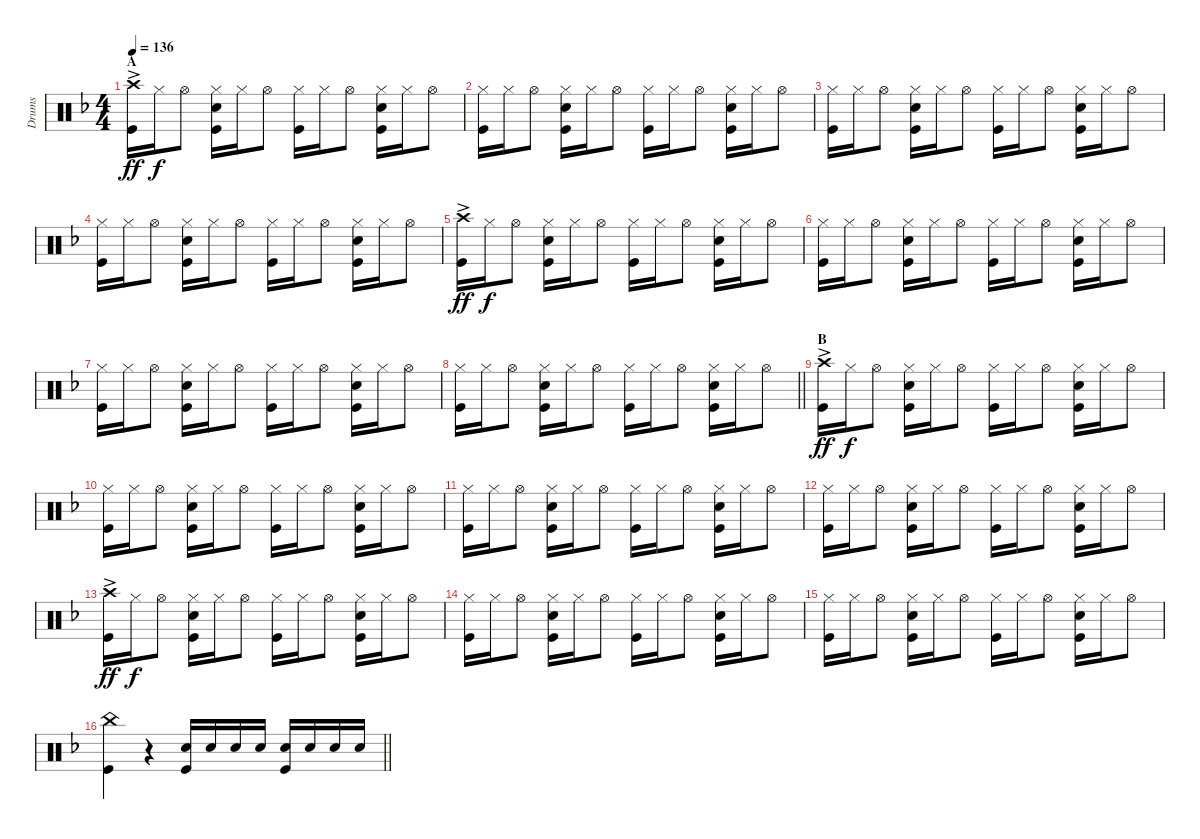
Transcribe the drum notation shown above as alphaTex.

\track ("Drums" "Drums") {instrument percussion}
\staff {score}
\articulation defaults
\ts (4 4)
\section ("" "A")
\tempo 136
\clef neutral
\ks dminor
("Kick (hit)" "Crash high (hit)"{ac}).16{dy ff} "Hi-Hat (closed)".16{dy f} "Hi-Hat (open)".8 ("Kick (hit)" "Hi-Hat (closed)" "Snare (hit) 2").16 "Hi-Hat (closed)".16 "Hi-Hat (open)".8 ("Kick (hit)" "Hi-Hat (closed)").16 "Hi-Hat (closed)".16 "Hi-Hat (open)".8 ("Kick (hit)" "Hi-Hat (closed)" "Snare (hit) 2").16 "Hi-Hat (closed)".16 "Hi-Hat (open)".8 |
("Kick (hit)" "Hi-Hat (closed)").16 "Hi-Hat (closed)".16 "Hi-Hat (open)".8 ("Kick (hit)" "Hi-Hat (closed)" "Snare (hit) 2").16 "Hi-Hat (closed)".16 "Hi-Hat (open)".8 ("Kick (hit)" "Hi-Hat (closed)").16 "Hi-Hat (closed)".16 "Hi-Hat (open)".8 ("Kick (hit)" "Hi-Hat (closed)" "Snare (hit) 2").16 "Hi-Hat (closed)".16 "Hi-Hat (open)".8 |
("Kick (hit)" "Hi-Hat (closed)").16 "Hi-Hat (closed)".16 "Hi-Hat (open)".8 ("Kick (hit)" "Hi-Hat (closed)" "Snare (hit) 2").16 "Hi-Hat (closed)".16 "Hi-Hat (open)".8 ("Kick (hit)" "Hi-Hat (closed)").16 "Hi-Hat (closed)".16 "Hi-Hat (open)".8 ("Kick (hit)" "Hi-Hat (closed)" "Snare (hit) 2").16 "Hi-Hat (closed)".16 "Hi-Hat (open)".8 |
("Kick (hit)" "Hi-Hat (closed)").16 "Hi-Hat (closed)".16 "Hi-Hat (open)".8 ("Kick (hit)" "Hi-Hat (closed)" "Snare (hit) 2").16 "Hi-Hat (closed)".16 "Hi-Hat (open)".8 ("Kick (hit)" "Hi-Hat (closed)").16 "Hi-Hat (closed)".16 "Hi-Hat (open)".8 ("Kick (hit)" "Hi-Hat (closed)" "Snare (hit) 2").16 "Hi-Hat (closed)".16 "Hi-Hat (open)".8 |
("Kick (hit)" "Crash high (hit)"{ac}).16{dy ff} "Hi-Hat (closed)".16{dy f} "Hi-Hat (open)".8 ("Kick (hit)" "Hi-Hat (closed)" "Snare (hit) 2").16 "Hi-Hat (closed)".16 "Hi-Hat (open)".8 ("Kick (hit)" "Hi-Hat (closed)").16 "Hi-Hat (closed)".16 "Hi-Hat (open)".8 ("Kick (hit)" "Hi-Hat (closed)" "Snare (hit) 2").16 "Hi-Hat (closed)".16 "Hi-Hat (open)".8 |
("Kick (hit)" "Hi-Hat (closed)").16 "Hi-Hat (closed)".16 "Hi-Hat (open)".8 ("Kick (hit)" "Hi-Hat (closed)" "Snare (hit) 2").16 "Hi-Hat (closed)".16 "Hi-Hat (open)".8 ("Kick (hit)" "Hi-Hat (closed)").16 "Hi-Hat (closed)".16 "Hi-Hat (open)".8 ("Kick (hit)" "Hi-Hat (closed)" "Snare (hit) 2").16 "Hi-Hat (closed)".16 "Hi-Hat (open)".8 |
("Kick (hit)" "Hi-Hat (closed)").16 "Hi-Hat (closed)".16 "Hi-Hat (open)".8 ("Kick (hit)" "Hi-Hat (closed)" "Snare (hit) 2").16 "Hi-Hat (closed)".16 "Hi-Hat (open)".8 ("Kick (hit)" "Hi-Hat (closed)").16 "Hi-Hat (closed)".16 "Hi-Hat (open)".8 ("Kick (hit)" "Hi-Hat (closed)" "Snare (hit) 2").16 "Hi-Hat (closed)".16 "Hi-Hat (open)".8 |
\barLineRight lightlight
("Kick (hit)" "Hi-Hat (closed)").16 "Hi-Hat (closed)".16 "Hi-Hat (open)".8 ("Kick (hit)" "Hi-Hat (closed)" "Snare (hit) 2").16 "Hi-Hat (closed)".16 "Hi-Hat (open)".8 ("Kick (hit)" "Hi-Hat (closed)").16 "Hi-Hat (closed)".16 "Hi-Hat (open)".8 ("Kick (hit)" "Hi-Hat (closed)" "Snare (hit) 2").16 "Hi-Hat (closed)".16 "Hi-Hat (open)".8 |
\section ("" "B")
("Kick (hit)" "Crash high (hit)"{ac}).16{dy ff} "Hi-Hat (closed)".16{dy f} "Hi-Hat (open)".8 ("Kick (hit)" "Hi-Hat (closed)" "Snare (hit) 2").16 "Hi-Hat (closed)".16 "Hi-Hat (open)".8 ("Kick (hit)" "Hi-Hat (closed)").16 "Hi-Hat (closed)".16 "Hi-Hat (open)".8 ("Kick (hit)" "Hi-Hat (closed)" "Snare (hit) 2").16 "Hi-Hat (closed)".16 "Hi-Hat (open)".8 |
("Kick (hit)" "Hi-Hat (closed)").16 "Hi-Hat (closed)".16 "Hi-Hat (open)".8 ("Kick (hit)" "Hi-Hat (closed)" "Snare (hit) 2").16 "Hi-Hat (closed)".16 "Hi-Hat (open)".8 ("Kick (hit)" "Hi-Hat (closed)").16 "Hi-Hat (closed)".16 "Hi-Hat (open)".8 ("Kick (hit)" "Hi-Hat (closed)" "Snare (hit) 2").16 "Hi-Hat (closed)".16 "Hi-Hat (open)".8 |
("Kick (hit)" "Hi-Hat (closed)").16 "Hi-Hat (closed)".16 "Hi-Hat (open)".8 ("Kick (hit)" "Hi-Hat (closed)" "Snare (hit) 2").16 "Hi-Hat (closed)".16 "Hi-Hat (open)".8 ("Kick (hit)" "Hi-Hat (closed)").16 "Hi-Hat (closed)".16 "Hi-Hat (open)".8 ("Kick (hit)" "Hi-Hat (closed)" "Snare (hit) 2").16 "Hi-Hat (closed)".16 "Hi-Hat (open)".8 |
("Kick (hit)" "Hi-Hat (closed)").16 "Hi-Hat (closed)".16 "Hi-Hat (open)".8 ("Kick (hit)" "Hi-Hat (closed)" "Snare (hit) 2").16 "Hi-Hat (closed)".16 "Hi-Hat (open)".8 ("Kick (hit)" "Hi-Hat (closed)").16 "Hi-Hat (closed)".16 "Hi-Hat (open)".8 ("Kick (hit)" "Hi-Hat (closed)" "Snare (hit) 2").16 "Hi-Hat (closed)".16 "Hi-Hat (open)".8 |
("Kick (hit)" "Crash high (hit)"{ac}).16{dy ff} "Hi-Hat (closed)".16{dy f} "Hi-Hat (open)".8 ("Kick (hit)" "Hi-Hat (closed)" "Snare (hit) 2").16 "Hi-Hat (closed)".16 "Hi-Hat (open)".8 ("Kick (hit)" "Hi-Hat (closed)").16 "Hi-Hat (closed)".16 "Hi-Hat (open)".8 ("Kick (hit)" "Hi-Hat (closed)" "Snare (hit) 2").16 "Hi-Hat (closed)".16 "Hi-Hat (open)".8 |
("Kick (hit)" "Hi-Hat (closed)").16 "Hi-Hat (closed)".16 "Hi-Hat (open)".8 ("Kick (hit)" "Hi-Hat (closed)" "Snare (hit) 2").16 "Hi-Hat (closed)".16 "Hi-Hat (open)".8 ("Kick (hit)" "Hi-Hat (closed)").16 "Hi-Hat (closed)".16 "Hi-Hat (open)".8 ("Kick (hit)" "Hi-Hat (closed)" "Snare (hit) 2").16 "Hi-Hat (closed)".16 "Hi-Hat (open)".8 |
("Kick (hit)" "Hi-Hat (closed)").16 "Hi-Hat (closed)".16 "Hi-Hat (open)".8 ("Kick (hit)" "Hi-Hat (closed)" "Snare (hit) 2").16 "Hi-Hat (closed)".16 "Hi-Hat (open)".8 ("Kick (hit)" "Hi-Hat (closed)").16 "Hi-Hat (closed)".16 "Hi-Hat (open)".8 ("Kick (hit)" "Hi-Hat (closed)" "Snare (hit) 2").16 "Hi-Hat (closed)".16 "Hi-Hat (open)".8 |
\barLineRight lightlight
("China (hit)" "Kick (hit)").4 r.4 ("Snare (hit) 2" "Kick (hit)").16 "Snare (hit) 2".16 "Snare (hit) 2".16 "Snare (hit) 2".16 ("Snare (hit) 2" "Kick (hit)").16 "Snare (hit) 2".16 "Snare (hit) 2".16 "Snare (hit) 2".16
